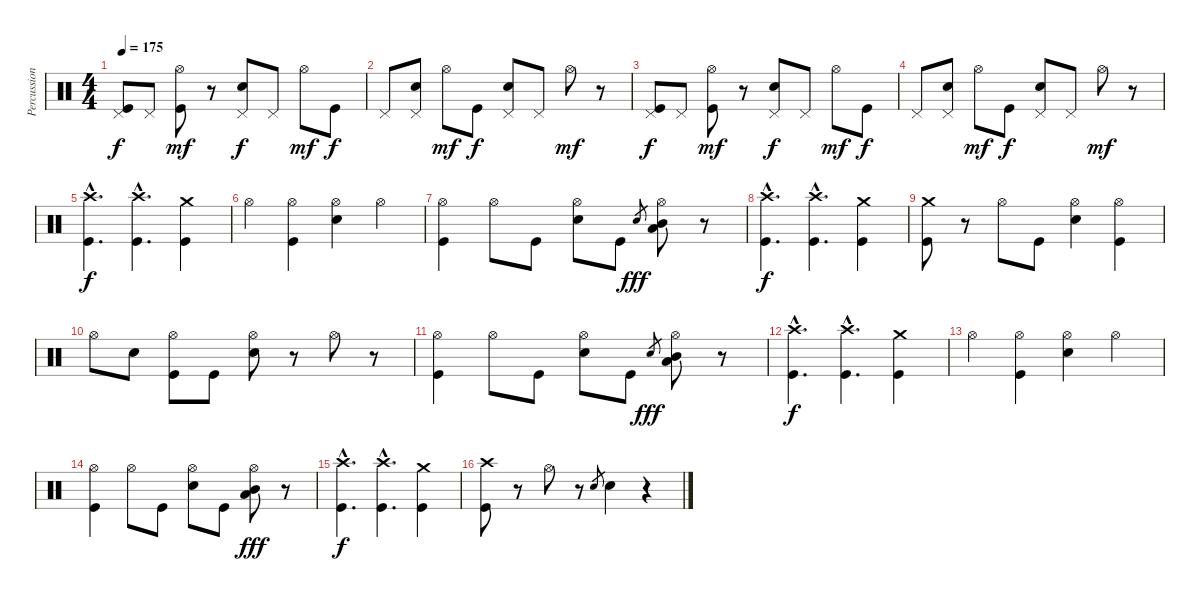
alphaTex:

\track ("Percussions" "Percussion") {instrument percussion}
\staff {score}
\articulation defaults
\ts (4 4)
\tempo 175
\clef neutral
\ks c
("Pedal Hi-Hat (hit)" "Kick (hit)").8{dy f} "Pedal Hi-Hat (hit)".8 ("Hi-Hat (open)" "Kick (hit)").8{dy mf} r.8 ("Pedal Hi-Hat (hit)" "Snare (hit) 2").8{dy f} "Pedal Hi-Hat (hit)".8 "Hi-Hat (open)".8{dy mf} "Kick (hit)".8{dy f} |
"Pedal Hi-Hat (hit)".8 ("Pedal Hi-Hat (hit)" "Snare (hit) 2").8 "Hi-Hat (open)".8{dy mf} "Kick (hit)".8{dy f} ("Pedal Hi-Hat (hit)" "Snare (hit) 2").8 "Pedal Hi-Hat (hit)".8 "Hi-Hat (open)".8{dy mf} r.8 |
("Pedal Hi-Hat (hit)" "Kick (hit)").8{dy f} "Pedal Hi-Hat (hit)".8 ("Hi-Hat (open)" "Kick (hit)").8{dy mf} r.8 ("Pedal Hi-Hat (hit)" "Snare (hit) 2").8{dy f} "Pedal Hi-Hat (hit)".8 "Hi-Hat (open)".8{dy mf} "Kick (hit)".8{dy f} |
"Pedal Hi-Hat (hit)".8 ("Pedal Hi-Hat (hit)" "Snare (hit) 2").8 "Hi-Hat (open)".8{dy mf} "Kick (hit)".8{dy f} ("Pedal Hi-Hat (hit)" "Snare (hit) 2").8 "Pedal Hi-Hat (hit)".8 "Hi-Hat (open)".8{dy mf} r.8 |
("Crash high (hit)"{hac} "Kick (hit)"{hac}).4{d dy f} ("Crash high (hit)"{hac} "Kick (hit)"{hac}).4{d} ("Crash medium (hit)" "Kick (hit)").4 |
"Hi-Hat (open)".4 ("Hi-Hat (open)" "Kick (hit)").4 ("Hi-Hat (open)" "Snare (hit) 2").4 "Hi-Hat (open)".4 |
("Hi-Hat (open)" "Kick (hit)").4 "Hi-Hat (open)".8 "Kick (hit)".8 ("Hi-Hat (open)" "Snare (hit) 2").8 "Kick (hit)".8 "Snare (hit) 2".8{gr dy fff} ("Hi-Hat (open)" "Low Tom (hit)" "Mid Tom (hit)").8 r.8 |
("Crash high (hit)"{hac} "Kick (hit)"{hac}).4{d dy f} ("Crash high (hit)"{hac} "Kick (hit)"{hac}).4{d} ("Crash medium (hit)" "Kick (hit)").4 |
("Crash medium (hit)" "Kick (hit)").8 r.8 "Hi-Hat (open)".8 "Kick (hit)".8 ("Hi-Hat (open)" "Snare (hit) 2").4 ("Hi-Hat (open)" "Kick (hit)").4 |
"Hi-Hat (open)".8 "Snare (hit) 2".8 ("Hi-Hat (open)" "Kick (hit)").8 "Kick (hit)".8 ("Hi-Hat (open)" "Snare (hit) 2").8 r.8 "Hi-Hat (open)".8 r.8 |
("Hi-Hat (open)" "Kick (hit)").4 "Hi-Hat (open)".8 "Kick (hit)".8 ("Hi-Hat (open)" "Snare (hit) 2").8 "Kick (hit)".8 "Snare (hit) 2".8{gr dy fff} ("Hi-Hat (open)" "Low Tom (hit)" "Mid Tom (hit)").8 r.8 |
("Crash high (hit)"{hac} "Kick (hit)"{hac}).4{d dy f} ("Crash high (hit)"{hac} "Kick (hit)"{hac}).4{d} ("Crash medium (hit)" "Kick (hit)").4 |
"Hi-Hat (open)".4 ("Hi-Hat (open)" "Kick (hit)").4 ("Hi-Hat (open)" "Snare (hit) 2").4 "Hi-Hat (open)".4 |
("Hi-Hat (open)" "Kick (hit)").4 "Hi-Hat (open)".8 "Kick (hit)".8 ("Hi-Hat (open)" "Snare (hit) 2").8 "Kick (hit)".8 ("Hi-Hat (open)" "Low Tom (hit)" "Mid Tom (hit)").8{dy fff} r.8 |
("Crash high (hit)"{hac} "Kick (hit)"{hac}).4{d dy f} ("Crash high (hit)"{hac} "Kick (hit)"{hac}).4{d} ("Crash medium (hit)" "Kick (hit)").4 |
("Crash high (hit)" "Kick (hit)").8 r.8 "Hi-Hat (open)".8 r.8 "Snare (hit) 2".8{gr} "Snare (hit) 2".4 r.4
